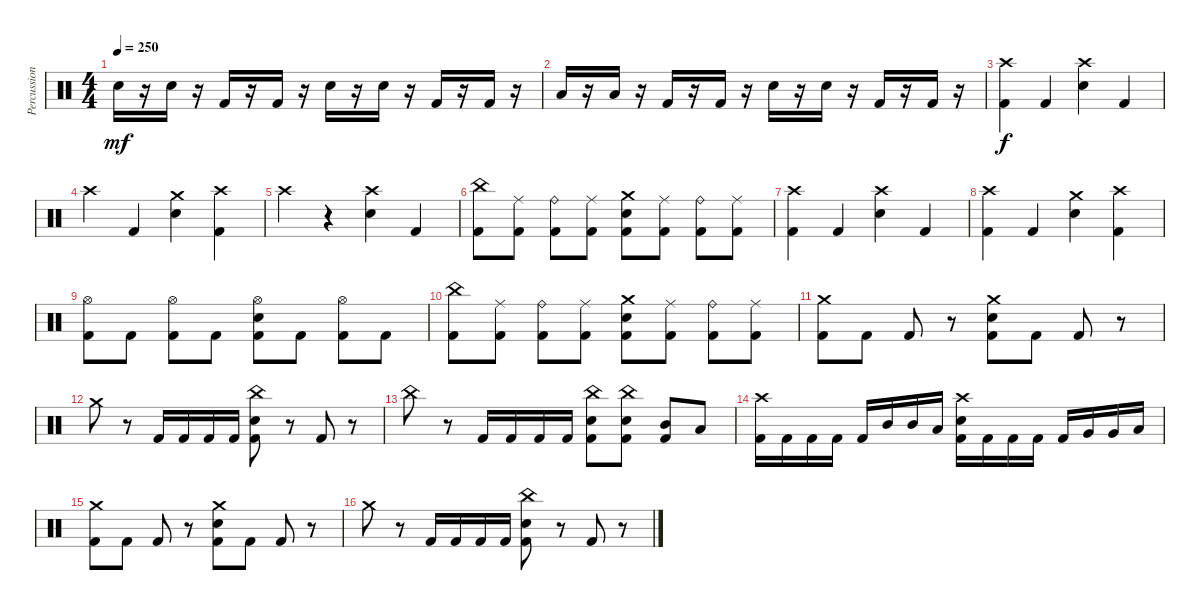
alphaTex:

\track ("Percussions" "Percussion") {instrument percussion}
\staff {score}
\articulation defaults
\ts (4 4)
\tempo 250
\clef neutral
\ks c "Electric Snare (hit)".16{dy mf}
r.16 "Electric Snare (hit)".16 r.16 "Kick (hit) 2".16 r.16 "Kick (hit) 2".16 r.16 "Electric Snare (hit)".16 r.16 "Electric Snare (hit)".16 r.16 "Kick (hit) 2".16 r.16 "Kick (hit) 2".16 r.16 |
"Low Tom (hit)".16 r.16 "Low Tom (hit)".16 r.16 "Kick (hit) 2".16 r.16 "Kick (hit) 2".16 r.16 "Electric Snare (hit)".16 r.16 "Electric Snare (hit)".16 r.16 "Kick (hit) 2".16 r.16 "Kick (hit) 2".16 r.16 |
("Crash high (hit)" "Kick (hit) 2").4{dy f} "Kick (hit) 2".4 ("Crash high (hit)" "Electric Snare (hit)").4 "Kick (hit) 2".4 |
"Crash high (hit)".4 "Kick (hit) 2".4 ("Crash medium (hit)" "Electric Snare (hit)").4 ("Crash high (hit)" "Kick (hit) 2").4 |
"Crash high (hit)".4 r.4 ("Crash high (hit)" "Electric Snare (hit)").4 "Kick (hit) 2".4 |
("China (hit)" "Kick (hit) 2").8 ("Ride (middle)" "Kick (hit) 2").8 ("Ride (bell)" "Kick (hit) 2").8 ("Ride (middle)" "Kick (hit) 2").8 ("Crash medium (hit)" "Electric Snare (hit)" "Kick (hit) 2").8 ("Ride (middle)" "Kick (hit) 2").8 ("Ride (bell)" "Kick (hit) 2").8 ("Ride (middle)" "Kick (hit) 2").8 |
("Crash high (hit)" "Kick (hit) 2").4 "Kick (hit) 2".4 ("Crash high (hit)" "Electric Snare (hit)").4 "Kick (hit) 2".4 |
("Crash high (hit)" "Kick (hit) 2").4 "Kick (hit) 2".4 ("Crash medium (hit)" "Electric Snare (hit)").4 ("Crash high (hit)" "Kick (hit) 2").4 |
("Hi-Hat (open)" "Kick (hit) 2").8 "Kick (hit) 2".8 ("Hi-Hat (open)" "Kick (hit) 2").8 "Kick (hit) 2".8 ("Hi-Hat (open)" "Electric Snare (hit)" "Kick (hit) 2").8 "Kick (hit) 2".8 ("Hi-Hat (open)" "Kick (hit) 2").8 "Kick (hit) 2".8 |
("China (hit)" "Kick (hit) 2").8 ("Ride (middle)" "Kick (hit) 2").8 ("Ride (bell)" "Kick (hit) 2").8 ("Ride (middle)" "Kick (hit) 2").8 ("Crash medium (hit)" "Electric Snare (hit)" "Kick (hit) 2").8 ("Ride (middle)" "Kick (hit) 2").8 ("Ride (bell)" "Kick (hit) 2").8 ("Ride (middle)" "Kick (hit) 2").8 |
("Crash medium (hit)" "Kick (hit) 2").8 "Kick (hit) 2".8 "Kick (hit) 2".8 r.8 ("Crash medium (hit)" "Electric Snare (hit)" "Kick (hit) 2").8 "Kick (hit) 2".8 "Kick (hit) 2".8 r.8 |
"Crash medium (hit)".8 r.8 "Kick (hit) 2".16 "Kick (hit) 2".16 "Kick (hit) 2".16 "Kick (hit) 2".16 ("China (hit)" "Electric Snare (hit)" "Kick (hit) 2").8 r.8 "Kick (hit) 2".8 r.8 |
"China (hit)".8 r.8 "Kick (hit) 2".16 "Kick (hit) 2".16 "Kick (hit) 2".16 "Kick (hit) 2".16 ("China (hit)" "Electric Snare (hit)" "Kick (hit) 2").8 ("China (hit)" "Electric Snare (hit)" "Kick (hit) 2").8 ("Mid Tom (hit)" "Kick (hit) 2").8 "Low Tom (hit)".8 |
("Crash high (hit)" "Kick (hit) 2").16 "Kick (hit) 2".16 "Kick (hit) 2".16 "Kick (hit) 2".16 "Kick (hit) 2".16 "Mid Tom (hit)".16 "Mid Tom (hit)".16 "Low Tom (hit)".16 ("Crash high (hit)" "Electric Snare (hit)" "Kick (hit) 2").16 "Kick (hit) 2".16 "Kick (hit) 2".16 "Kick (hit) 2".16 "Kick (hit) 2".16 "Very Low Tom (hit)".16 "Very Low Tom (hit)".16 "Low Floor Tom (hit)".16 |
("Crash medium (hit)" "Kick (hit) 2").8 "Kick (hit) 2".8 "Kick (hit) 2".8 r.8 ("Crash medium (hit)" "Electric Snare (hit)" "Kick (hit) 2").8 "Kick (hit) 2".8 "Kick (hit) 2".8 r.8 |
"Crash medium (hit)".8 r.8 "Kick (hit) 2".16 "Kick (hit) 2".16 "Kick (hit) 2".16 "Kick (hit) 2".16 ("China (hit)" "Electric Snare (hit)" "Kick (hit) 2").8 r.8 "Kick (hit) 2".8 r.8
